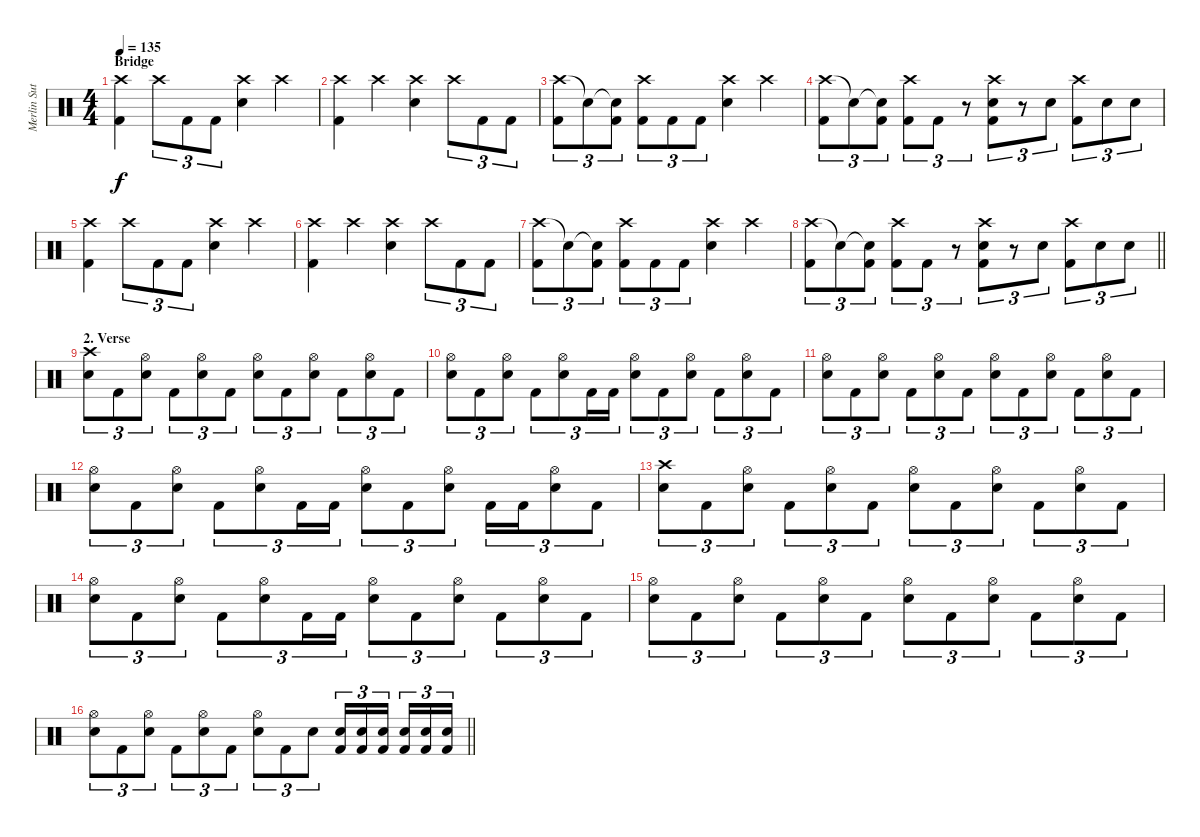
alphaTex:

\track ("Merlin Sutter" "Merlin Sut") {instrument percussion}
\staff {score}
\articulation defaults
\ts (4 4)
\section ("" "Bridge")
\tempo 135
\clef neutral
\ks c
("Crash high (hit)" "Kick (hit) 2").4{dy f} "Crash high (hit)".8{tu (3 2)} "Kick (hit) 2".8{tu (3 2)} "Kick (hit) 2".8{tu (3 2)} ("Crash high (hit)" "Snare (hit) 2").4 "Crash high (hit)".4 |
("Crash high (hit)" "Kick (hit) 2").4 "Crash high (hit)".4 ("Crash high (hit)" "Snare (hit) 2").4 "Crash high (hit)".8{tu (3 2)} "Kick (hit) 2".8{tu (3 2)} "Kick (hit) 2".8{tu (3 2)} |
("Crash high (hit)" "Kick (hit) 2").8{tu (3 2)} "Snare (hit)"{t}.8{tu (3 2)} ("Snare (hit)"{t} "Kick (hit) 2").8{tu (3 2)} ("Crash high (hit)" "Kick (hit) 2").8{tu (3 2)} "Kick (hit) 2".8{tu (3 2)} "Kick (hit) 2".8{tu (3 2)} ("Crash high (hit)" "Snare (hit) 2").4 "Crash high (hit)".4 |
("Crash high (hit)" "Kick (hit) 2").8{tu (3 2)} "Snare (hit)"{t}.8{tu (3 2)} ("Snare (hit)"{t} "Kick (hit) 2").8{tu (3 2)} ("Crash high (hit)" "Kick (hit) 2").8{tu (3 2)} "Kick (hit) 2".8{tu (3 2)} r.8{tu (3 2)} ("Crash high (hit)" "Snare (hit) 2" "Kick (hit) 2").8{tu (3 2)} r.8{tu (3 2)} "Snare (hit) 2".8{tu (3 2)} ("Crash high (hit)" "Kick (hit) 2").8{tu (3 2)} "Snare (hit) 2".8{tu (3 2)} "Snare (hit) 2".8{tu (3 2)} |
("Crash high (hit)" "Kick (hit) 2").4 "Crash high (hit)".8{tu (3 2)} "Kick (hit) 2".8{tu (3 2)} "Kick (hit) 2".8{tu (3 2)} ("Crash high (hit)" "Snare (hit) 2").4 "Crash high (hit)".4 |
("Crash high (hit)" "Kick (hit) 2").4 "Crash high (hit)".4 ("Crash high (hit)" "Snare (hit) 2").4 "Crash high (hit)".8{tu (3 2)} "Kick (hit) 2".8{tu (3 2)} "Kick (hit) 2".8{tu (3 2)} |
("Crash high (hit)" "Kick (hit) 2").8{tu (3 2)} "Snare (hit)"{t}.8{tu (3 2)} ("Snare (hit)"{t} "Kick (hit) 2").8{tu (3 2)} ("Crash high (hit)" "Kick (hit) 2").8{tu (3 2)} "Kick (hit) 2".8{tu (3 2)} "Kick (hit) 2".8{tu (3 2)} ("Crash high (hit)" "Snare (hit) 2").4 "Crash high (hit)".4 |
\barLineRight lightlight
("Crash high (hit)" "Kick (hit) 2").8{tu (3 2)} "Snare (hit)"{t}.8{tu (3 2)} ("Snare (hit)"{t} "Kick (hit) 2").8{tu (3 2)} ("Crash high (hit)" "Kick (hit) 2").8{tu (3 2)} "Kick (hit) 2".8{tu (3 2)} r.8{tu (3 2)} ("Crash high (hit)" "Snare (hit) 2" "Kick (hit) 2").8{tu (3 2)} r.8{tu (3 2)} "Snare (hit) 2".8{tu (3 2)} ("Crash high (hit)" "Kick (hit) 2").8{tu (3 2)} "Snare (hit) 2".8{tu (3 2)} "Snare (hit) 2".8{tu (3 2)} |
\section ("" "2. Verse")
("Crash high (hit)" "Snare (hit) 2").8{tu (3 2)} "Kick (hit) 2".8{tu (3 2)} ("Hi-Hat (open)" "Snare (hit) 2").8{tu (3 2)} "Kick (hit) 2".8{tu (3 2)} ("Hi-Hat (open)" "Snare (hit) 2").8{tu (3 2)} "Kick (hit) 2".8{tu (3 2)} ("Hi-Hat (open)" "Snare (hit) 2").8{tu (3 2)} "Kick (hit) 2".8{tu (3 2)} ("Hi-Hat (open)" "Snare (hit) 2").8{tu (3 2)} "Kick (hit) 2".8{tu (3 2)} ("Hi-Hat (open)" "Snare (hit) 2").8{tu (3 2)} "Kick (hit) 2".8{tu (3 2)} |
("Hi-Hat (open)" "Snare (hit) 2").8{tu (3 2)} "Kick (hit) 2".8{tu (3 2)} ("Hi-Hat (open)" "Snare (hit) 2").8{tu (3 2)} "Kick (hit) 2".8{tu (3 2)} ("Hi-Hat (open)" "Snare (hit) 2").8{tu (3 2)} "Kick (hit) 2".16{tu (3 2)} "Kick (hit) 2".16{tu (3 2)} ("Hi-Hat (open)" "Snare (hit) 2").8{tu (3 2)} "Kick (hit) 2".8{tu (3 2)} ("Hi-Hat (open)" "Snare (hit) 2").8{tu (3 2)} "Kick (hit) 2".8{tu (3 2)} ("Hi-Hat (open)" "Snare (hit) 2").8{tu (3 2)} "Kick (hit) 2".8{tu (3 2)} |
("Hi-Hat (open)" "Snare (hit) 2").8{tu (3 2)} "Kick (hit) 2".8{tu (3 2)} ("Hi-Hat (open)" "Snare (hit) 2").8{tu (3 2)} "Kick (hit) 2".8{tu (3 2)} ("Hi-Hat (open)" "Snare (hit) 2").8{tu (3 2)} "Kick (hit) 2".8{tu (3 2)} ("Hi-Hat (open)" "Snare (hit) 2").8{tu (3 2)} "Kick (hit) 2".8{tu (3 2)} ("Hi-Hat (open)" "Snare (hit) 2").8{tu (3 2)} "Kick (hit) 2".8{tu (3 2)} ("Hi-Hat (open)" "Snare (hit) 2").8{tu (3 2)} "Kick (hit) 2".8{tu (3 2)} |
("Hi-Hat (open)" "Snare (hit) 2").8{tu (3 2)} "Kick (hit) 2".8{tu (3 2)} ("Hi-Hat (open)" "Snare (hit) 2").8{tu (3 2)} "Kick (hit) 2".8{tu (3 2)} ("Hi-Hat (open)" "Snare (hit) 2").8{tu (3 2)} "Kick (hit) 2".16{tu (3 2)} "Kick (hit) 2".16{tu (3 2)} ("Hi-Hat (open)" "Snare (hit) 2").8{tu (3 2)} "Kick (hit) 2".8{tu (3 2)} ("Hi-Hat (open)" "Snare (hit) 2").8{tu (3 2)} "Kick (hit) 2".16{tu (3 2)} "Kick (hit) 2".16{tu (3 2)} ("Hi-Hat (open)" "Snare (hit) 2").8{tu (3 2)} "Kick (hit) 2".8{tu (3 2)} |
("Crash high (hit)" "Snare (hit) 2").8{tu (3 2)} "Kick (hit) 2".8{tu (3 2)} ("Hi-Hat (open)" "Snare (hit) 2").8{tu (3 2)} "Kick (hit) 2".8{tu (3 2)} ("Hi-Hat (open)" "Snare (hit) 2").8{tu (3 2)} "Kick (hit) 2".8{tu (3 2)} ("Hi-Hat (open)" "Snare (hit) 2").8{tu (3 2)} "Kick (hit) 2".8{tu (3 2)} ("Hi-Hat (open)" "Snare (hit) 2").8{tu (3 2)} "Kick (hit) 2".8{tu (3 2)} ("Hi-Hat (open)" "Snare (hit) 2").8{tu (3 2)} "Kick (hit) 2".8{tu (3 2)} |
("Hi-Hat (open)" "Snare (hit) 2").8{tu (3 2)} "Kick (hit) 2".8{tu (3 2)} ("Hi-Hat (open)" "Snare (hit) 2").8{tu (3 2)} "Kick (hit) 2".8{tu (3 2)} ("Hi-Hat (open)" "Snare (hit) 2").8{tu (3 2)} "Kick (hit) 2".16{tu (3 2)} "Kick (hit) 2".16{tu (3 2)} ("Hi-Hat (open)" "Snare (hit) 2").8{tu (3 2)} "Kick (hit) 2".8{tu (3 2)} ("Hi-Hat (open)" "Snare (hit) 2").8{tu (3 2)} "Kick (hit) 2".8{tu (3 2)} ("Hi-Hat (open)" "Snare (hit) 2").8{tu (3 2)} "Kick (hit) 2".8{tu (3 2)} |
("Hi-Hat (open)" "Snare (hit) 2").8{tu (3 2)} "Kick (hit) 2".8{tu (3 2)} ("Hi-Hat (open)" "Snare (hit) 2").8{tu (3 2)} "Kick (hit) 2".8{tu (3 2)} ("Hi-Hat (open)" "Snare (hit) 2").8{tu (3 2)} "Kick (hit) 2".8{tu (3 2)} ("Hi-Hat (open)" "Snare (hit) 2").8{tu (3 2)} "Kick (hit) 2".8{tu (3 2)} ("Hi-Hat (open)" "Snare (hit) 2").8{tu (3 2)} "Kick (hit) 2".8{tu (3 2)} ("Hi-Hat (open)" "Snare (hit) 2").8{tu (3 2)} "Kick (hit) 2".8{tu (3 2)} |
\barLineRight lightlight
("Hi-Hat (open)" "Snare (hit) 2").8{tu (3 2)} "Kick (hit) 2".8{tu (3 2)} ("Hi-Hat (open)" "Snare (hit) 2").8{tu (3 2)} "Kick (hit) 2".8{tu (3 2)} ("Hi-Hat (open)" "Snare (hit) 2").8{tu (3 2)} "Kick (hit) 2".8{tu (3 2)} ("Hi-Hat (open)" "Snare (hit) 2").8{tu (3 2)} "Kick (hit) 2".8{tu (3 2)} "Snare (hit) 2".8{tu (3 2)} ("Snare (hit) 2" "Kick (hit) 2").16{tu (3 2)} ("Snare (hit) 2" "Kick (hit) 2").16{tu (3 2)} ("Snare (hit) 2" "Kick (hit) 2").16{tu (3 2) beam splitsecondary} ("Snare (hit) 2" "Kick (hit) 2").16{tu (3 2)} ("Snare (hit) 2" "Kick (hit) 2").16{tu (3 2)} ("Snare (hit) 2" "Kick (hit) 2").16{tu (3 2)}
